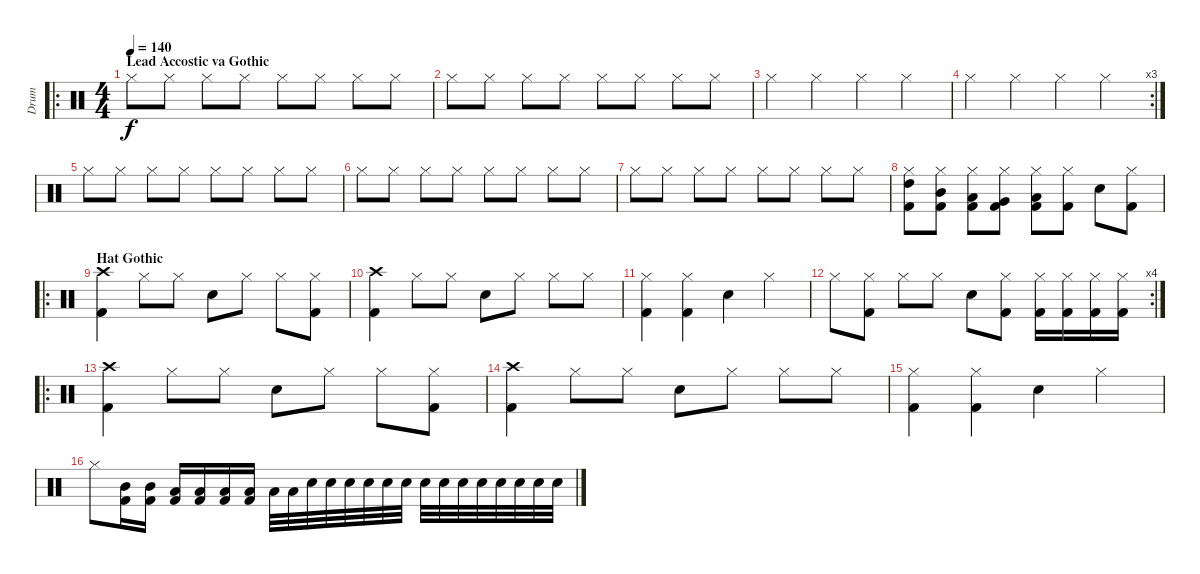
\track ("Drum" "Drum") {instrument percussion}
\staff {score}
\articulation defaults
\ro
\ts (4 4)
\section ("" "Lead Accostic va Gothic")
\tempo 140
\clef neutral
\ks c "Hi-Hat (closed)".8{dy f} "Hi-Hat (closed)".8 "Hi-Hat (closed)".8 "Hi-Hat (closed)".8 "Hi-Hat (closed)".8 "Hi-Hat (closed)".8 "Hi-Hat (closed)".8 "Hi-Hat (closed)".8
|
"Hi-Hat (closed)".8 "Hi-Hat (closed)".8 "Hi-Hat (closed)".8 "Hi-Hat (closed)".8 "Hi-Hat (closed)".8 "Hi-Hat (closed)".8 "Hi-Hat (closed)".8 "Hi-Hat (closed)".8 |
"Hi-Hat (closed)".4 "Hi-Hat (closed)".4 "Hi-Hat (closed)".4 "Hi-Hat (closed)".4 |
\rc 3 "Hi-Hat (closed)".4 "Hi-Hat (closed)".4 "Hi-Hat (closed)".4 "Hi-Hat (closed)".4
|
"Hi-Hat (closed)".8 "Hi-Hat (closed)".8 "Hi-Hat (closed)".8 "Hi-Hat (closed)".8 "Hi-Hat (closed)".8 "Hi-Hat (closed)".8 "Hi-Hat (closed)".8 "Hi-Hat (closed)".8 |
"Hi-Hat (closed)".8 "Hi-Hat (closed)".8 "Hi-Hat (closed)".8 "Hi-Hat (closed)".8 "Hi-Hat (closed)".8 "Hi-Hat (closed)".8 "Hi-Hat (closed)".8 "Hi-Hat (closed)".8 |
"Hi-Hat (closed)".8 "Hi-Hat (closed)".8 "Hi-Hat (closed)".8 "Hi-Hat (closed)".8 "Hi-Hat (closed)".8 "Hi-Hat (closed)".8 "Hi-Hat (closed)".8 "Hi-Hat (closed)".8 |
("High Tom (hit)" "Hi-Hat (closed)" "Kick (hit) 2").8 ("Mid Tom (hit)" "Hi-Hat (closed)" "Kick (hit) 2").8 ("Low Tom (hit)" "Hi-Hat (closed)" "Kick (hit) 2").8 ("Very Low Tom (hit)" "Hi-Hat (closed)" "Kick (hit) 2").8 ("Low Floor Tom (hit)" "Hi-Hat (closed)" "Kick (hit) 2").8 ("Hi-Hat (closed)" "Kick (hit) 2").8 "Snare (hit) 2".8 ("Hi-Hat (closed)" "Kick (hit) 2").8 |
\ro
\section ("" "Hat Gothic")
("Crash high (hit)" "Kick (hit) 2").4 "Hi-Hat (closed)".8 "Hi-Hat (closed)".8 "Snare (hit) 2".8 "Hi-Hat (closed)".8 "Hi-Hat (closed)".8 ("Hi-Hat (closed)" "Kick (hit) 2").8 |
("Crash high (hit)" "Kick (hit) 2").4 "Hi-Hat (closed)".8 "Hi-Hat (closed)".8 "Snare (hit) 2".8 "Hi-Hat (closed)".8 "Hi-Hat (closed)".8 "Hi-Hat (closed)".8 |
("Hi-Hat (closed)" "Kick (hit) 2").4 ("Hi-Hat (closed)" "Kick (hit) 2").4 "Snare (hit) 2".4 "Hi-Hat (closed)".4 |
\rc 4 "Hi-Hat (closed)".8
("Hi-Hat (closed)" "Kick (hit) 2").8 "Hi-Hat (closed)".8 "Hi-Hat (closed)".8 "Snare (hit) 2".8 ("Hi-Hat (closed)" "Kick (hit) 2").8 ("Hi-Hat (closed)" "Kick (hit) 2").16 ("Hi-Hat (closed)" "Kick (hit) 2").16 ("Hi-Hat (closed)" "Kick (hit) 2").16 ("Hi-Hat (closed)" "Kick (hit) 2").16 |
\ro
("Crash high (hit)" "Kick (hit) 2").4 "Hi-Hat (closed)".8 "Hi-Hat (closed)".8 "Snare (hit) 2".8 "Hi-Hat (closed)".8 "Hi-Hat (closed)".8 ("Hi-Hat (closed)" "Kick (hit) 2").8 |
("Crash high (hit)" "Kick (hit) 2").4 "Hi-Hat (closed)".8 "Hi-Hat (closed)".8 "Snare (hit) 2".8 "Hi-Hat (closed)".8 "Hi-Hat (closed)".8 "Hi-Hat (closed)".8 |
("Hi-Hat (closed)" "Kick (hit) 2").4 ("Hi-Hat (closed)" "Kick (hit) 2").4 "Snare (hit) 2".4 "Hi-Hat (closed)".4 |
"Hi-Hat (closed)".8 ("Mid Tom (hit)" "Kick (hit) 2").16 ("Mid Tom (hit)" "Kick (hit) 2").16 ("Low Tom (hit)" "Kick (hit) 2").16 ("Low Tom (hit)" "Kick (hit) 2").16 ("Low Tom (hit)" "Kick (hit) 2").16 ("Low Tom (hit)" "Kick (hit) 2").16 "Low Floor Tom (hit)".32 "Low Floor Tom (hit)".32 "Snare (hit) 2".32 "Snare (hit) 2".32 "Snare (hit) 2".32 "Snare (hit) 2".32 "Snare (hit) 2".32 "Snare (hit) 2".32 "Snare (hit) 2".32 "Snare (hit) 2".32 "Snare (hit) 2".32 "Snare (hit) 2".32 "Snare (hit) 2".32 "Snare (hit) 2".32 "Snare (hit) 2".32 "Snare (hit) 2".32
